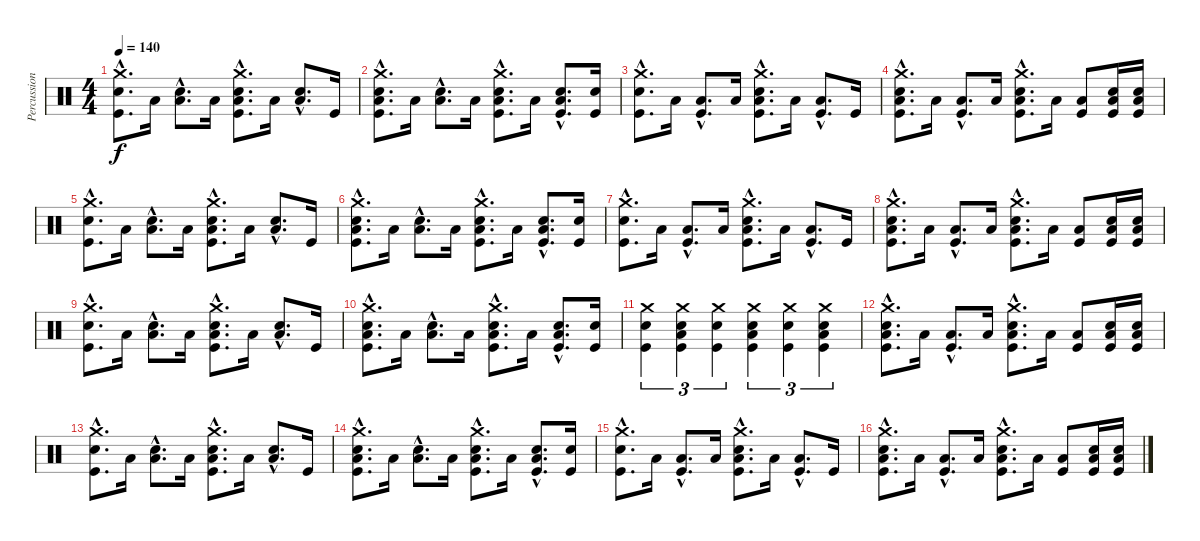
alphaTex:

\track ("Percussions" "Percussion") {instrument percussion}
\staff {score}
\articulation defaults
\ts (4 4)
\tempo 140
\clef neutral
\ks c
("Crash medium (hit)"{hac} "Electric Snare (hit)"{hac} "Kick (hit)"{hac}).8{d dy f} "Low Tom (hit)".16 ("Electric Snare (hit)"{hac} "Low Tom (hit)"{hac}).8{d} "Low Tom (hit)".16 ("Crash medium (hit)"{hac} "Electric Snare (hit)"{hac} "Low Tom (hit)"{hac} "Kick (hit)"{hac}).8{d} "Low Tom (hit)".16 ("Electric Snare (hit)"{hac} "Low Tom (hit)"{hac}).8{d} "Kick (hit)".16 |
("Crash medium (hit)"{hac} "Electric Snare (hit)"{hac} "Low Tom (hit)"{hac} "Kick (hit)"{hac}).8{d} "Low Tom (hit)".16 ("Electric Snare (hit)"{hac} "Low Tom (hit)"{hac}).8{d} "Low Tom (hit)".16 ("Crash medium (hit)"{hac} "Electric Snare (hit)"{hac} "Low Tom (hit)"{hac} "Kick (hit)"{hac}).8{d} "Low Tom (hit)".16 ("Electric Snare (hit)"{hac} "Low Tom (hit)"{hac} "Kick (hit)"{hac}).8{d} ("Electric Snare (hit)" "Kick (hit)").16 |
("Crash medium (hit)"{hac} "Electric Snare (hit)"{hac} "Kick (hit)"{hac}).8{d} "Low Tom (hit)".16 ("Kick (hit)"{hac} "Low Tom (hit)"{hac}).8{d} "Low Tom (hit)".16 ("Crash medium (hit)"{hac} "Electric Snare (hit)"{hac} "Low Tom (hit)"{hac} "Kick (hit)"{hac}).8{d} "Low Tom (hit)".16 ("Kick (hit)"{hac} "Low Tom (hit)"{hac}).8{d} "Kick (hit)".16 |
("Crash medium (hit)"{hac} "Electric Snare (hit)"{hac} "Low Tom (hit)"{hac} "Kick (hit)"{hac}).8{d} "Low Tom (hit)".16 ("Kick (hit)"{hac} "Low Tom (hit)"{hac}).8{d} "Low Tom (hit)".16 ("Crash medium (hit)"{hac} "Electric Snare (hit)"{hac} "Low Tom (hit)"{hac} "Kick (hit)"{hac}).8{d} "Low Tom (hit)".16 ("Kick (hit)" "Low Tom (hit)").8 ("Electric Snare (hit)" "Low Tom (hit)" "Kick (hit)").16 ("Electric Snare (hit)" "Low Tom (hit)" "Kick (hit)").16 |
("Crash medium (hit)"{hac} "Electric Snare (hit)"{hac} "Kick (hit)"{hac}).8{d} "Low Tom (hit)".16 ("Electric Snare (hit)"{hac} "Low Tom (hit)"{hac}).8{d} "Low Tom (hit)".16 ("Crash medium (hit)"{hac} "Electric Snare (hit)"{hac} "Low Tom (hit)"{hac} "Kick (hit)"{hac}).8{d} "Low Tom (hit)".16 ("Electric Snare (hit)"{hac} "Low Tom (hit)"{hac}).8{d} "Kick (hit)".16 |
("Crash medium (hit)"{hac} "Electric Snare (hit)"{hac} "Low Tom (hit)"{hac} "Kick (hit)"{hac}).8{d} "Low Tom (hit)".16 ("Electric Snare (hit)"{hac} "Low Tom (hit)"{hac}).8{d} "Low Tom (hit)".16 ("Crash medium (hit)"{hac} "Electric Snare (hit)"{hac} "Low Tom (hit)"{hac} "Kick (hit)"{hac}).8{d} "Low Tom (hit)".16 ("Electric Snare (hit)"{hac} "Low Tom (hit)"{hac} "Kick (hit)"{hac}).8{d} ("Electric Snare (hit)" "Kick (hit)").16 |
("Crash medium (hit)"{hac} "Electric Snare (hit)"{hac} "Kick (hit)"{hac}).8{d} "Low Tom (hit)".16 ("Kick (hit)"{hac} "Low Tom (hit)"{hac}).8{d} "Low Tom (hit)".16 ("Crash medium (hit)"{hac} "Electric Snare (hit)"{hac} "Low Tom (hit)"{hac} "Kick (hit)"{hac}).8{d} "Low Tom (hit)".16 ("Kick (hit)"{hac} "Low Tom (hit)"{hac}).8{d} "Kick (hit)".16 |
("Crash medium (hit)"{hac} "Electric Snare (hit)"{hac} "Low Tom (hit)"{hac} "Kick (hit)"{hac}).8{d} "Low Tom (hit)".16 ("Kick (hit)"{hac} "Low Tom (hit)"{hac}).8{d} "Low Tom (hit)".16 ("Crash medium (hit)"{hac} "Electric Snare (hit)"{hac} "Low Tom (hit)"{hac} "Kick (hit)"{hac}).8{d} "Low Tom (hit)".16 ("Kick (hit)" "Low Tom (hit)").8 ("Electric Snare (hit)" "Low Tom (hit)" "Kick (hit)").16 ("Electric Snare (hit)" "Low Tom (hit)" "Kick (hit)").16 |
("Crash medium (hit)"{hac} "Electric Snare (hit)"{hac} "Kick (hit)"{hac}).8{d} "Low Tom (hit)".16 ("Electric Snare (hit)"{hac} "Low Tom (hit)"{hac}).8{d} "Low Tom (hit)".16 ("Crash medium (hit)"{hac} "Electric Snare (hit)"{hac} "Low Tom (hit)"{hac} "Kick (hit)"{hac}).8{d} "Low Tom (hit)".16 ("Electric Snare (hit)"{hac} "Low Tom (hit)"{hac}).8{d} "Kick (hit)".16 |
("Crash medium (hit)"{hac} "Electric Snare (hit)"{hac} "Low Tom (hit)"{hac} "Kick (hit)"{hac}).8{d} "Low Tom (hit)".16 ("Electric Snare (hit)"{hac} "Low Tom (hit)"{hac}).8{d} "Low Tom (hit)".16 ("Crash medium (hit)"{hac} "Electric Snare (hit)"{hac} "Low Tom (hit)"{hac} "Kick (hit)"{hac}).8{d} "Low Tom (hit)".16 ("Electric Snare (hit)"{hac} "Low Tom (hit)"{hac} "Kick (hit)"{hac}).8{d} ("Electric Snare (hit)" "Kick (hit)").16 |
("Crash medium (hit)" "Electric Snare (hit)" "Kick (hit)").4{tu (3 2)} ("Crash medium (hit)" "Electric Snare (hit)" "Low Tom (hit)" "Kick (hit)").4{tu (3 2)} ("Crash medium (hit)" "Electric Snare (hit)" "Kick (hit)").4{tu (3 2)} ("Crash medium (hit)" "Electric Snare (hit)" "Low Tom (hit)" "Kick (hit)").4{tu (3 2)} ("Crash medium (hit)" "Electric Snare (hit)" "Kick (hit)").4{tu (3 2)} ("Crash medium (hit)" "Electric Snare (hit)" "Low Tom (hit)" "Kick (hit)").4{tu (3 2)} |
("Crash medium (hit)"{hac} "Electric Snare (hit)"{hac} "Low Tom (hit)"{hac} "Kick (hit)"{hac}).8{d} "Low Tom (hit)".16 ("Kick (hit)"{hac} "Low Tom (hit)"{hac}).8{d} "Low Tom (hit)".16 ("Crash medium (hit)"{hac} "Electric Snare (hit)"{hac} "Low Tom (hit)"{hac} "Kick (hit)"{hac}).8{d} "Low Tom (hit)".16 ("Kick (hit)" "Low Tom (hit)").8 ("Electric Snare (hit)" "Low Tom (hit)" "Kick (hit)").16 ("Electric Snare (hit)" "Low Tom (hit)" "Kick (hit)").16 |
("Crash medium (hit)"{hac} "Electric Snare (hit)"{hac} "Kick (hit)"{hac}).8{d} "Low Tom (hit)".16 ("Electric Snare (hit)"{hac} "Low Tom (hit)"{hac}).8{d} "Low Tom (hit)".16 ("Crash medium (hit)"{hac} "Electric Snare (hit)"{hac} "Low Tom (hit)"{hac} "Kick (hit)"{hac}).8{d} "Low Tom (hit)".16 ("Electric Snare (hit)"{hac} "Low Tom (hit)"{hac}).8{d} "Kick (hit)".16 |
("Crash medium (hit)"{hac} "Electric Snare (hit)"{hac} "Low Tom (hit)"{hac} "Kick (hit)"{hac}).8{d} "Low Tom (hit)".16 ("Electric Snare (hit)"{hac} "Low Tom (hit)"{hac}).8{d} "Low Tom (hit)".16 ("Crash medium (hit)"{hac} "Electric Snare (hit)"{hac} "Low Tom (hit)"{hac} "Kick (hit)"{hac}).8{d} "Low Tom (hit)".16 ("Electric Snare (hit)"{hac} "Low Tom (hit)"{hac} "Kick (hit)"{hac}).8{d} ("Electric Snare (hit)" "Kick (hit)").16 |
("Crash medium (hit)"{hac} "Electric Snare (hit)"{hac} "Kick (hit)"{hac}).8{d} "Low Tom (hit)".16 ("Kick (hit)"{hac} "Low Tom (hit)"{hac}).8{d} "Low Tom (hit)".16 ("Crash medium (hit)"{hac} "Electric Snare (hit)"{hac} "Low Tom (hit)"{hac} "Kick (hit)"{hac}).8{d} "Low Tom (hit)".16 ("Kick (hit)"{hac} "Low Tom (hit)"{hac}).8{d} "Kick (hit)".16 |
("Crash medium (hit)"{hac} "Electric Snare (hit)"{hac} "Low Tom (hit)"{hac} "Kick (hit)"{hac}).8{d} "Low Tom (hit)".16 ("Kick (hit)"{hac} "Low Tom (hit)"{hac}).8{d} "Low Tom (hit)".16 ("Crash medium (hit)"{hac} "Electric Snare (hit)"{hac} "Low Tom (hit)"{hac} "Kick (hit)"{hac}).8{d} "Low Tom (hit)".16 ("Kick (hit)" "Low Tom (hit)").8 ("Electric Snare (hit)" "Low Tom (hit)" "Kick (hit)").16 ("Electric Snare (hit)" "Low Tom (hit)" "Kick (hit)").16
